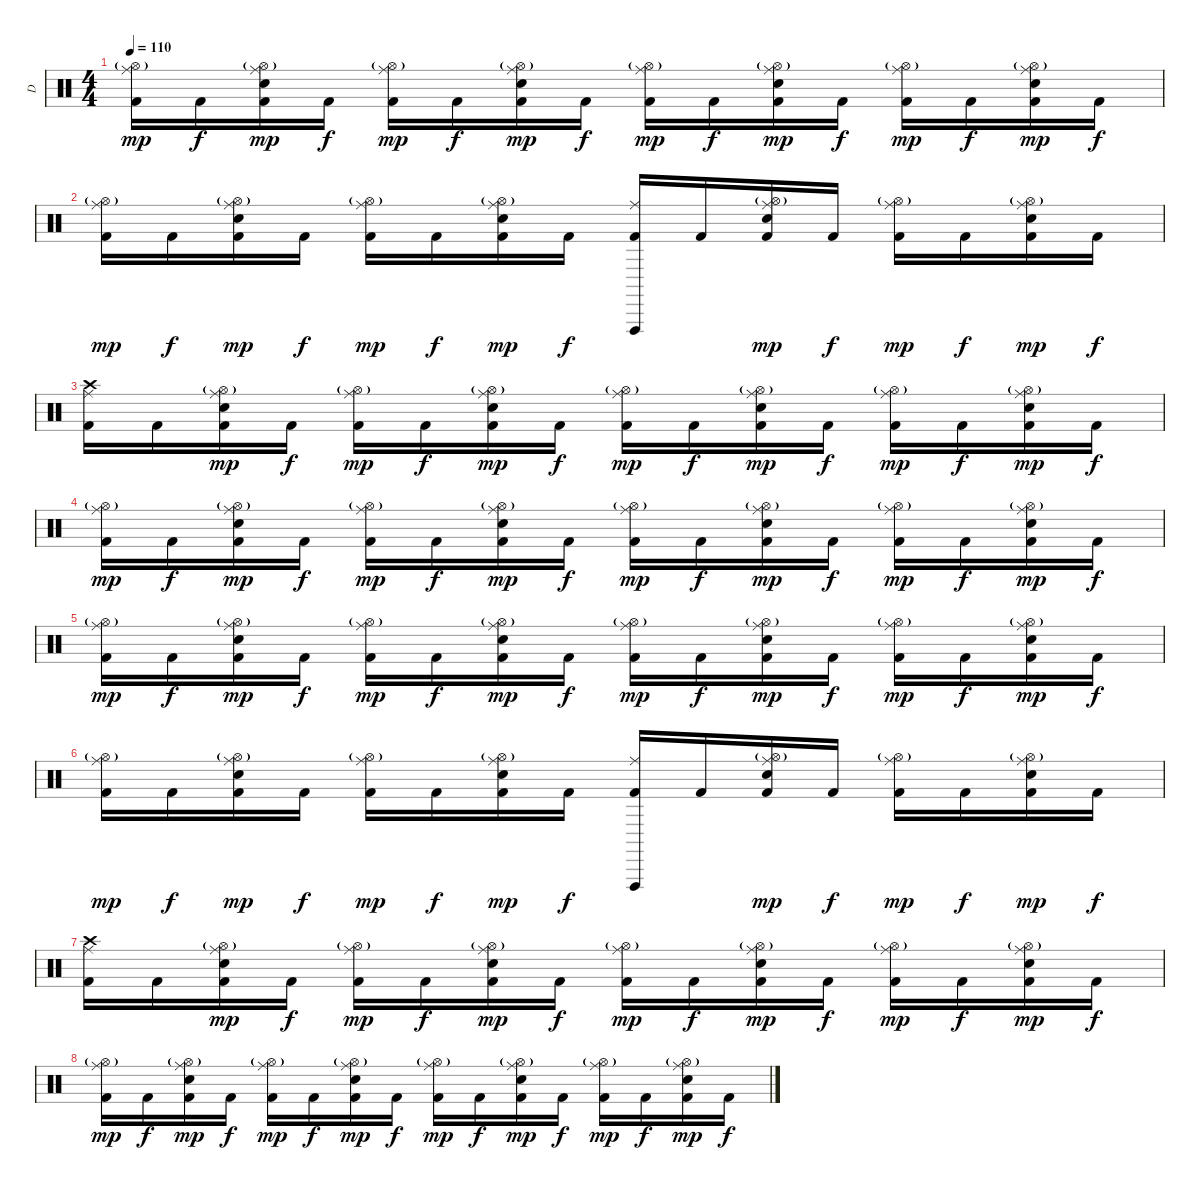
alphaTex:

\track ("D" "D") {instrument percussion}
\staff {score}
\articulation defaults
\ts (4 4)
\tempo 110
\clef neutral
\ks c
("Ride (middle)" "Hi-Hat (open)"{g} "Kick (hit) 2").16{dy mp} "Kick (hit) 2".16{dy f} ("Ride (middle)" "Hi-Hat (open)"{g} "Electric Snare (hit)" "Kick (hit) 2").16{dy mp} "Kick (hit) 2".16{dy f} ("Ride (middle)" "Hi-Hat (open)"{g} "Kick (hit) 2").16{dy mp} "Kick (hit) 2".16{dy f} ("Ride (middle)" "Hi-Hat (open)"{g} "Electric Snare (hit)" "Kick (hit) 2").16{dy mp} "Kick (hit) 2".16{dy f} ("Ride (middle)" "Hi-Hat (open)"{g} "Kick (hit) 2").16{dy mp} "Kick (hit) 2".16{dy f} ("Ride (middle)" "Hi-Hat (open)"{g} "Electric Snare (hit)" "Kick (hit) 2").16{dy mp} "Kick (hit) 2".16{dy f} ("Ride (middle)" "Hi-Hat (open)"{g} "Kick (hit) 2").16{dy mp} "Kick (hit) 2".16{dy f} ("Ride (middle)" "Hi-Hat (open)"{g} "Electric Snare (hit)" "Kick (hit) 2").16{dy mp} "Kick (hit) 2".16{dy f} |
("Ride (middle)" "Hi-Hat (open)"{g} "Kick (hit) 2").16{dy mp} "Kick (hit) 2".16{dy f} ("Ride (middle)" "Hi-Hat (open)"{g} "Electric Snare (hit)" "Kick (hit) 2").16{dy mp} "Kick (hit) 2".16{dy f} ("Ride (middle)" "Hi-Hat (open)"{g} "Kick (hit) 2").16{dy mp} "Kick (hit) 2".16{dy f} ("Ride (middle)" "Hi-Hat (open)"{g} "Electric Snare (hit)" "Kick (hit) 2").16{dy mp} "Kick (hit) 2".16{dy f} ("Ride (middle)" "Vibraslap (hit)" "Kick (hit) 2").16 "Kick (hit) 2".16 ("Ride (middle)" "Hi-Hat (open)"{g} "Electric Snare (hit)" "Kick (hit) 2").16{dy mp} "Kick (hit) 2".16{dy f} ("Ride (middle)" "Hi-Hat (open)"{g} "Kick (hit) 2").16{dy mp} "Kick (hit) 2".16{dy f} ("Ride (middle)" "Hi-Hat (open)"{g} "Electric Snare (hit)" "Kick (hit) 2").16{dy mp} "Kick (hit) 2".16{dy f} |
("Crash high (hit)" "Ride (middle)" "Kick (hit) 2").16 "Kick (hit) 2".16 ("Ride (middle)" "Hi-Hat (open)"{g} "Electric Snare (hit)" "Kick (hit) 2").16{dy mp} "Kick (hit) 2".16{dy f} ("Ride (middle)" "Hi-Hat (open)"{g} "Kick (hit) 2").16{dy mp} "Kick (hit) 2".16{dy f} ("Ride (middle)" "Hi-Hat (open)"{g} "Electric Snare (hit)" "Kick (hit) 2").16{dy mp} "Kick (hit) 2".16{dy f} ("Ride (middle)" "Hi-Hat (open)"{g} "Kick (hit) 2").16{dy mp} "Kick (hit) 2".16{dy f} ("Ride (middle)" "Hi-Hat (open)"{g} "Electric Snare (hit)" "Kick (hit) 2").16{dy mp} "Kick (hit) 2".16{dy f} ("Ride (middle)" "Hi-Hat (open)"{g} "Kick (hit) 2").16{dy mp} "Kick (hit) 2".16{dy f} ("Ride (middle)" "Hi-Hat (open)"{g} "Electric Snare (hit)" "Kick (hit) 2").16{dy mp} "Kick (hit) 2".16{dy f} |
("Ride (middle)" "Hi-Hat (open)"{g} "Kick (hit) 2").16{dy mp} "Kick (hit) 2".16{dy f} ("Ride (middle)" "Hi-Hat (open)"{g} "Electric Snare (hit)" "Kick (hit) 2").16{dy mp} "Kick (hit) 2".16{dy f} ("Ride (middle)" "Hi-Hat (open)"{g} "Kick (hit) 2").16{dy mp} "Kick (hit) 2".16{dy f} ("Ride (middle)" "Hi-Hat (open)"{g} "Electric Snare (hit)" "Kick (hit) 2").16{dy mp} "Kick (hit) 2".16{dy f} ("Ride (middle)" "Hi-Hat (open)"{g} "Kick (hit) 2").16{dy mp} "Kick (hit) 2".16{dy f} ("Ride (middle)" "Hi-Hat (open)"{g} "Electric Snare (hit)" "Kick (hit) 2").16{dy mp} "Kick (hit) 2".16{dy f} ("Ride (middle)" "Hi-Hat (open)"{g} "Kick (hit) 2").16{dy mp} "Kick (hit) 2".16{dy f} ("Ride (middle)" "Hi-Hat (open)"{g} "Electric Snare (hit)" "Kick (hit) 2").16{dy mp} "Kick (hit) 2".16{dy f} |
("Ride (middle)" "Hi-Hat (open)"{g} "Kick (hit) 2").16{dy mp} "Kick (hit) 2".16{dy f} ("Ride (middle)" "Hi-Hat (open)"{g} "Electric Snare (hit)" "Kick (hit) 2").16{dy mp} "Kick (hit) 2".16{dy f} ("Ride (middle)" "Hi-Hat (open)"{g} "Kick (hit) 2").16{dy mp} "Kick (hit) 2".16{dy f} ("Ride (middle)" "Hi-Hat (open)"{g} "Electric Snare (hit)" "Kick (hit) 2").16{dy mp} "Kick (hit) 2".16{dy f} ("Ride (middle)" "Hi-Hat (open)"{g} "Kick (hit) 2").16{dy mp} "Kick (hit) 2".16{dy f} ("Ride (middle)" "Hi-Hat (open)"{g} "Electric Snare (hit)" "Kick (hit) 2").16{dy mp} "Kick (hit) 2".16{dy f} ("Ride (middle)" "Hi-Hat (open)"{g} "Kick (hit) 2").16{dy mp} "Kick (hit) 2".16{dy f} ("Ride (middle)" "Hi-Hat (open)"{g} "Electric Snare (hit)" "Kick (hit) 2").16{dy mp} "Kick (hit) 2".16{dy f} |
("Ride (middle)" "Hi-Hat (open)"{g} "Kick (hit) 2").16{dy mp} "Kick (hit) 2".16{dy f} ("Ride (middle)" "Hi-Hat (open)"{g} "Electric Snare (hit)" "Kick (hit) 2").16{dy mp} "Kick (hit) 2".16{dy f} ("Ride (middle)" "Hi-Hat (open)"{g} "Kick (hit) 2").16{dy mp} "Kick (hit) 2".16{dy f} ("Ride (middle)" "Hi-Hat (open)"{g} "Electric Snare (hit)" "Kick (hit) 2").16{dy mp} "Kick (hit) 2".16{dy f} ("Ride (middle)" "Vibraslap (hit)" "Kick (hit) 2").16 "Kick (hit) 2".16 ("Ride (middle)" "Hi-Hat (open)"{g} "Electric Snare (hit)" "Kick (hit) 2").16{dy mp} "Kick (hit) 2".16{dy f} ("Ride (middle)" "Hi-Hat (open)"{g} "Kick (hit) 2").16{dy mp} "Kick (hit) 2".16{dy f} ("Ride (middle)" "Hi-Hat (open)"{g} "Electric Snare (hit)" "Kick (hit) 2").16{dy mp} "Kick (hit) 2".16{dy f} |
("Crash high (hit)" "Ride (middle)" "Kick (hit) 2").16 "Kick (hit) 2".16 ("Ride (middle)" "Hi-Hat (open)"{g} "Electric Snare (hit)" "Kick (hit) 2").16{dy mp} "Kick (hit) 2".16{dy f} ("Ride (middle)" "Hi-Hat (open)"{g} "Kick (hit) 2").16{dy mp} "Kick (hit) 2".16{dy f} ("Ride (middle)" "Hi-Hat (open)"{g} "Electric Snare (hit)" "Kick (hit) 2").16{dy mp} "Kick (hit) 2".16{dy f} ("Ride (middle)" "Hi-Hat (open)"{g} "Kick (hit) 2").16{dy mp} "Kick (hit) 2".16{dy f} ("Ride (middle)" "Hi-Hat (open)"{g} "Electric Snare (hit)" "Kick (hit) 2").16{dy mp} "Kick (hit) 2".16{dy f} ("Ride (middle)" "Hi-Hat (open)"{g} "Kick (hit) 2").16{dy mp} "Kick (hit) 2".16{dy f} ("Ride (middle)" "Hi-Hat (open)"{g} "Electric Snare (hit)" "Kick (hit) 2").16{dy mp} "Kick (hit) 2".16{dy f} |
("Ride (middle)" "Hi-Hat (open)"{g} "Kick (hit) 2").16{dy mp} "Kick (hit) 2".16{dy f} ("Ride (middle)" "Hi-Hat (open)"{g} "Electric Snare (hit)" "Kick (hit) 2").16{dy mp} "Kick (hit) 2".16{dy f} ("Ride (middle)" "Hi-Hat (open)"{g} "Kick (hit) 2").16{dy mp} "Kick (hit) 2".16{dy f} ("Ride (middle)" "Hi-Hat (open)"{g} "Electric Snare (hit)" "Kick (hit) 2").16{dy mp} "Kick (hit) 2".16{dy f} ("Ride (middle)" "Hi-Hat (open)"{g} "Kick (hit) 2").16{dy mp} "Kick (hit) 2".16{dy f} ("Ride (middle)" "Hi-Hat (open)"{g} "Electric Snare (hit)" "Kick (hit) 2").16{dy mp} "Kick (hit) 2".16{dy f} ("Ride (middle)" "Hi-Hat (open)"{g} "Kick (hit) 2").16{dy mp} "Kick (hit) 2".16{dy f} ("Ride (middle)" "Hi-Hat (open)"{g} "Electric Snare (hit)" "Kick (hit) 2").16{dy mp} "Kick (hit) 2".16{dy f}
